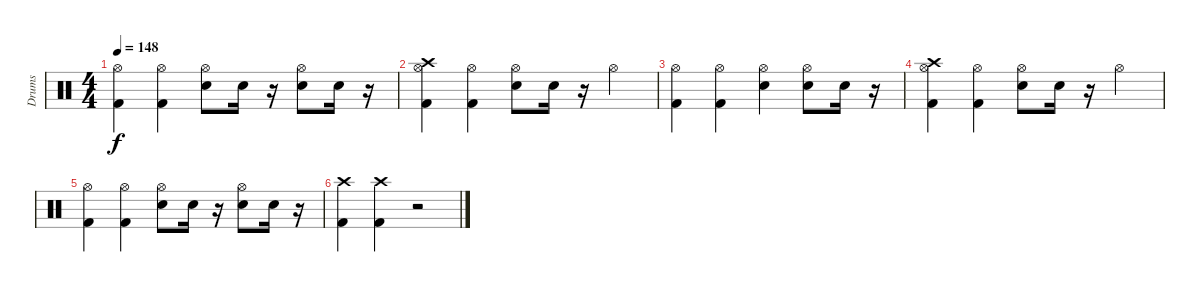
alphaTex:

\track ("Drums" "Drums") {instrument percussion}
\staff {score}
\articulation defaults
\ts (4 4)
\tempo 148
\clef neutral
\ks c
("Hi-Hat (open)" "Kick (hit) 2").4{dy f} ("Hi-Hat (open)" "Kick (hit) 2").4 ("Hi-Hat (open)" "Snare (hit) 2").8 "Snare (hit) 2".16 r.16 ("Hi-Hat (open)" "Snare (hit) 2").8 "Snare (hit) 2".16 r.16 |
("Kick (hit) 2" "Hi-Hat (open)" "Crash high (hit)").4 ("Kick (hit) 2" "Hi-Hat (open)").4 ("Snare (hit) 2" "Hi-Hat (open)").8 "Snare (hit) 2".16 r.16 "Hi-Hat (open)".4 |
("Kick (hit) 2" "Hi-Hat (open)").4 ("Kick (hit) 2" "Hi-Hat (open)").4 ("Snare (hit) 2" "Hi-Hat (open)").4 ("Snare (hit) 2" "Hi-Hat (open)").8 "Snare (hit) 2".16 r.16 |
("Crash high (hit)" "Hi-Hat (open)" "Kick (hit) 2").4 ("Hi-Hat (open)" "Kick (hit) 2").4 ("Hi-Hat (open)" "Snare (hit) 2").8 "Snare (hit) 2".16 r.16 "Hi-Hat (open)".4 |
("Hi-Hat (open)" "Kick (hit) 2").4 ("Hi-Hat (open)" "Kick (hit) 2").4 ("Hi-Hat (open)" "Snare (hit) 2").8 "Snare (hit) 2".16 r.16 ("Hi-Hat (open)" "Snare (hit) 2").8 "Snare (hit) 2".16 r.16 |
("Crash high (hit)" "Kick (hit) 2").4 ("Crash high (hit)" "Kick (hit) 2").4 r.2
